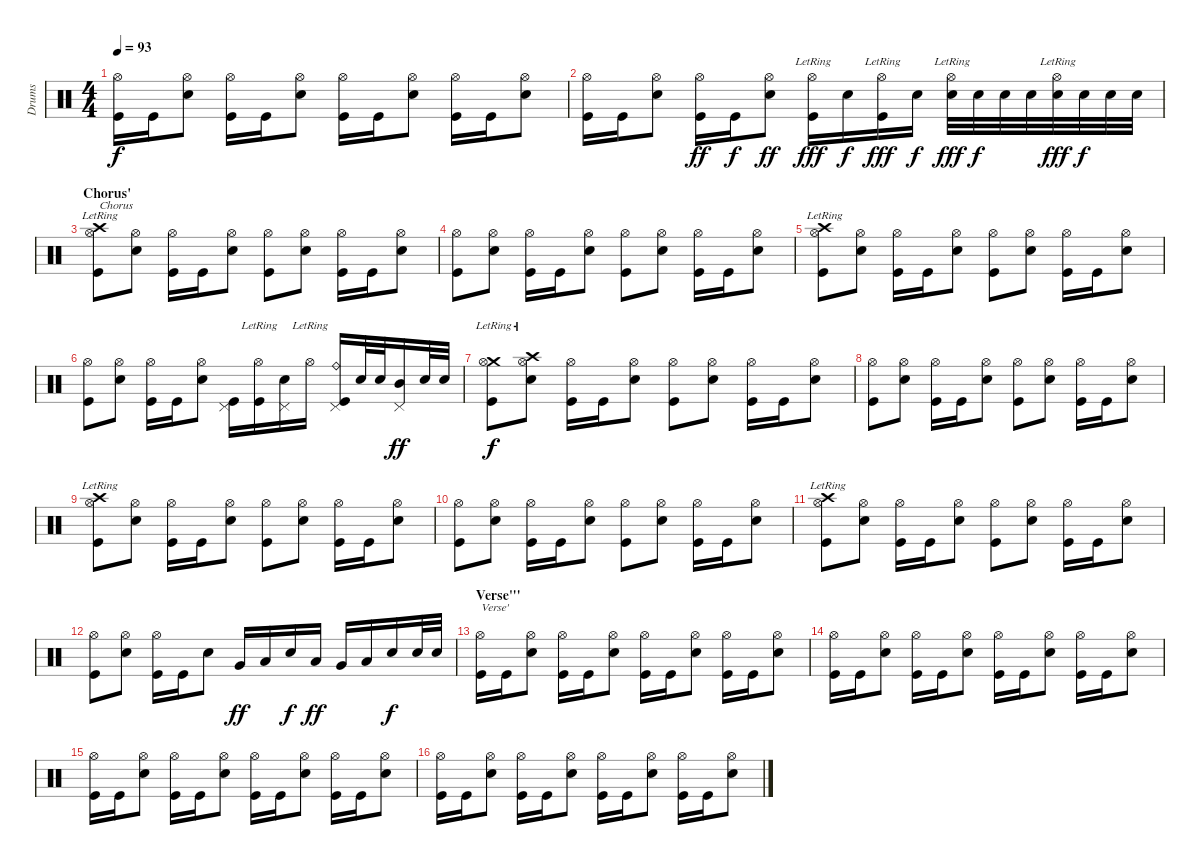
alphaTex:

\track ("Drums" "Drums") {instrument percussion}
\staff {score}
\articulation defaults
\ts (4 4)
\tempo 93
\clef neutral
\ks c
("Hi-Hat (open)" "Kick (hit)").16{dy f} "Kick (hit)".16 ("Hi-Hat (open)" "Snare (hit) 2").8 ("Hi-Hat (open)" "Kick (hit)").16 "Kick (hit)".16 ("Hi-Hat (open)" "Snare (hit) 2").8 ("Hi-Hat (open)" "Kick (hit)").16 "Kick (hit)".16 ("Hi-Hat (open)" "Snare (hit) 2").8 ("Hi-Hat (open)" "Kick (hit)").16 "Kick (hit)".16 ("Hi-Hat (open)" "Snare (hit) 2").8 |
("Hi-Hat (open)" "Kick (hit)").16 "Kick (hit)".16 ("Hi-Hat (open)" "Snare (hit) 2").8 ("Hi-Hat (open)" "Kick (hit)").16{dy ff} "Kick (hit)".16{dy f} ("Hi-Hat (open)" "Snare (hit) 2").8{dy ff} ("Hi-Hat (open)"{lr} "Kick (hit)").16{dy fff} "Snare (hit) 2".16{dy f} ("Hi-Hat (open)"{lr} "Kick (hit)").16{dy fff} "Snare (hit) 2".16{dy f} ("Hi-Hat (open)"{lr} "Snare (hit) 2").32{dy fff} "Snare (hit) 2".32{dy f} "Snare (hit) 2".32 "Snare (hit) 2".32 ("Hi-Hat (open)"{lr} "Snare (hit) 2").32{dy fff} "Snare (hit) 2".32{dy f} "Snare (hit) 2".32 "Snare (hit) 2".32 |
\section ("" "Chorus'")
("Crash high (hit)"{lr} "Hi-Hat (open)" "Kick (hit)").8{txt "Chorus"} ("Hi-Hat (open)" "Snare (hit) 2").8 ("Hi-Hat (open)" "Kick (hit)").16 "Kick (hit)".16 ("Hi-Hat (open)" "Snare (hit) 2").8 ("Hi-Hat (open)" "Kick (hit)").8 ("Hi-Hat (open)" "Snare (hit) 2").8 ("Hi-Hat (open)" "Kick (hit)").16 "Kick (hit)".16 ("Hi-Hat (open)" "Snare (hit) 2").8 |
("Hi-Hat (open)" "Kick (hit)").8 ("Hi-Hat (open)" "Snare (hit) 2").8 ("Hi-Hat (open)" "Kick (hit)").16 "Kick (hit)".16 ("Hi-Hat (open)" "Snare (hit) 2").8 ("Hi-Hat (open)" "Kick (hit)").8 ("Hi-Hat (open)" "Snare (hit) 2").8 ("Hi-Hat (open)" "Kick (hit)").16 "Kick (hit)".16 ("Hi-Hat (open)" "Snare (hit) 2").8 |
("Crash high (hit)"{lr} "Hi-Hat (open)" "Kick (hit)").8 ("Hi-Hat (open)" "Snare (hit) 2").8 ("Hi-Hat (open)" "Kick (hit)").16 "Kick (hit)".16 ("Hi-Hat (open)" "Snare (hit) 2").8 ("Hi-Hat (open)" "Kick (hit)").8 ("Hi-Hat (open)" "Snare (hit) 2").8 ("Hi-Hat (open)" "Kick (hit)").16 "Kick (hit)".16 ("Hi-Hat (open)" "Snare (hit) 2").8 |
("Hi-Hat (open)" "Kick (hit)").8 ("Hi-Hat (open)" "Snare (hit) 2").8 ("Hi-Hat (open)" "Kick (hit)").16 "Kick (hit)".16 ("Hi-Hat (open)" "Snare (hit) 2").8 ("Pedal Hi-Hat (hit)" "Kick (hit)").16 ("Hi-Hat (open)"{lr} "Kick (hit)").16 ("Pedal Hi-Hat (hit)" "Snare (hit) 2").16 "Hi-Hat (open)"{lr}.16 ("Pedal Hi-Hat (hit)" "Ride (bell)"{lr} "Kick (hit)").16 "Snare (hit) 2".32 "Snare (hit) 2".32 ("Pedal Hi-Hat (hit)" "Mid Tom (hit)").16{dy ff} "Snare (hit) 2".32 "Snare (hit) 2".32 |
("Crash medium (hit)"{lr} "Hi-Hat (open)" "Kick (hit)").8{dy f} ("Crash high (hit)"{lr} "Hi-Hat (open)" "Snare (hit) 2").8 ("Hi-Hat (open)" "Kick (hit)").16 "Kick (hit)".16 ("Hi-Hat (open)" "Snare (hit) 2").8 ("Hi-Hat (open)" "Kick (hit)").8 ("Hi-Hat (open)" "Snare (hit) 2").8 ("Hi-Hat (open)" "Kick (hit)").16 "Kick (hit)".16 ("Hi-Hat (open)" "Snare (hit) 2").8 |
("Hi-Hat (open)" "Kick (hit)").8 ("Hi-Hat (open)" "Snare (hit) 2").8 ("Hi-Hat (open)" "Kick (hit)").16 "Kick (hit)".16 ("Hi-Hat (open)" "Snare (hit) 2").8 ("Hi-Hat (open)" "Kick (hit)").8 ("Hi-Hat (open)" "Snare (hit) 2").8 ("Hi-Hat (open)" "Kick (hit)").16 "Kick (hit)".16 ("Hi-Hat (open)" "Snare (hit) 2").8 |
("Crash high (hit)"{lr} "Hi-Hat (open)" "Kick (hit)").8 ("Hi-Hat (open)" "Snare (hit) 2").8 ("Hi-Hat (open)" "Kick (hit)").16 "Kick (hit)".16 ("Hi-Hat (open)" "Snare (hit) 2").8 ("Hi-Hat (open)" "Kick (hit)").8 ("Hi-Hat (open)" "Snare (hit) 2").8 ("Hi-Hat (open)" "Kick (hit)").16 "Kick (hit)".16 ("Hi-Hat (open)" "Snare (hit) 2").8 |
("Hi-Hat (open)" "Kick (hit)").8 ("Hi-Hat (open)" "Snare (hit) 2").8 ("Hi-Hat (open)" "Kick (hit)").16 "Kick (hit)".16 ("Hi-Hat (open)" "Snare (hit) 2").8 ("Hi-Hat (open)" "Kick (hit)").8 ("Hi-Hat (open)" "Snare (hit) 2").8 ("Hi-Hat (open)" "Kick (hit)").16 "Kick (hit)".16 ("Hi-Hat (open)" "Snare (hit) 2").8 |
("Crash high (hit)"{lr} "Hi-Hat (open)" "Kick (hit)").8 ("Hi-Hat (open)" "Snare (hit) 2").8 ("Hi-Hat (open)" "Kick (hit)").16 "Kick (hit)".16 ("Hi-Hat (open)" "Snare (hit) 2").8 ("Hi-Hat (open)" "Kick (hit)").8 ("Hi-Hat (open)" "Snare (hit) 2").8 ("Hi-Hat (open)" "Kick (hit)").16 "Kick (hit)".16 ("Hi-Hat (open)" "Snare (hit) 2").8 |
("Hi-Hat (open)" "Kick (hit)").8 ("Hi-Hat (open)" "Snare (hit) 2").8 ("Hi-Hat (open)" "Kick (hit)").16 "Kick (hit)".16 "Snare (hit) 2".8 "Very Low Tom (hit)".16{dy ff} "Low Tom (hit)".16 "Snare (hit) 2".16{dy f} "Low Tom (hit)".16{dy ff} "Very Low Tom (hit)".16 "Low Tom (hit)".16 "Snare (hit) 2".16{dy f} "Snare (hit) 2".32 "Snare (hit) 2".32 |
\section ("" "Verse'''")
("Hi-Hat (open)" "Kick (hit)").16{txt "Verse'"} "Kick (hit)".16 ("Hi-Hat (open)" "Snare (hit) 2").8 ("Hi-Hat (open)" "Kick (hit)").16 "Kick (hit)".16 ("Hi-Hat (open)" "Snare (hit) 2").8 ("Hi-Hat (open)" "Kick (hit)").16 "Kick (hit)".16 ("Hi-Hat (open)" "Snare (hit) 2").8 ("Hi-Hat (open)" "Kick (hit)").16 "Kick (hit)".16 ("Hi-Hat (open)" "Snare (hit) 2").8 |
("Hi-Hat (open)" "Kick (hit)").16 "Kick (hit)".16 ("Hi-Hat (open)" "Snare (hit) 2").8 ("Hi-Hat (open)" "Kick (hit)").16 "Kick (hit)".16 ("Hi-Hat (open)" "Snare (hit) 2").8 ("Hi-Hat (open)" "Kick (hit)").16 "Kick (hit)".16 ("Hi-Hat (open)" "Snare (hit) 2").8 ("Hi-Hat (open)" "Kick (hit)").16 "Kick (hit)".16 ("Hi-Hat (open)" "Snare (hit) 2").8 |
("Hi-Hat (open)" "Kick (hit)").16 "Kick (hit)".16 ("Hi-Hat (open)" "Snare (hit) 2").8 ("Hi-Hat (open)" "Kick (hit)").16 "Kick (hit)".16 ("Hi-Hat (open)" "Snare (hit) 2").8 ("Hi-Hat (open)" "Kick (hit)").16 "Kick (hit)".16 ("Hi-Hat (open)" "Snare (hit) 2").8 ("Hi-Hat (open)" "Kick (hit)").16 "Kick (hit)".16 ("Hi-Hat (open)" "Snare (hit) 2").8 |
("Hi-Hat (open)" "Kick (hit)").16 "Kick (hit)".16 ("Hi-Hat (open)" "Snare (hit) 2").8 ("Hi-Hat (open)" "Kick (hit)").16 "Kick (hit)".16 ("Hi-Hat (open)" "Snare (hit) 2").8 ("Hi-Hat (open)" "Kick (hit)").16 "Kick (hit)".16 ("Hi-Hat (open)" "Snare (hit) 2").8 ("Hi-Hat (open)" "Kick (hit)").16 "Kick (hit)".16 ("Hi-Hat (open)" "Snare (hit) 2").8
